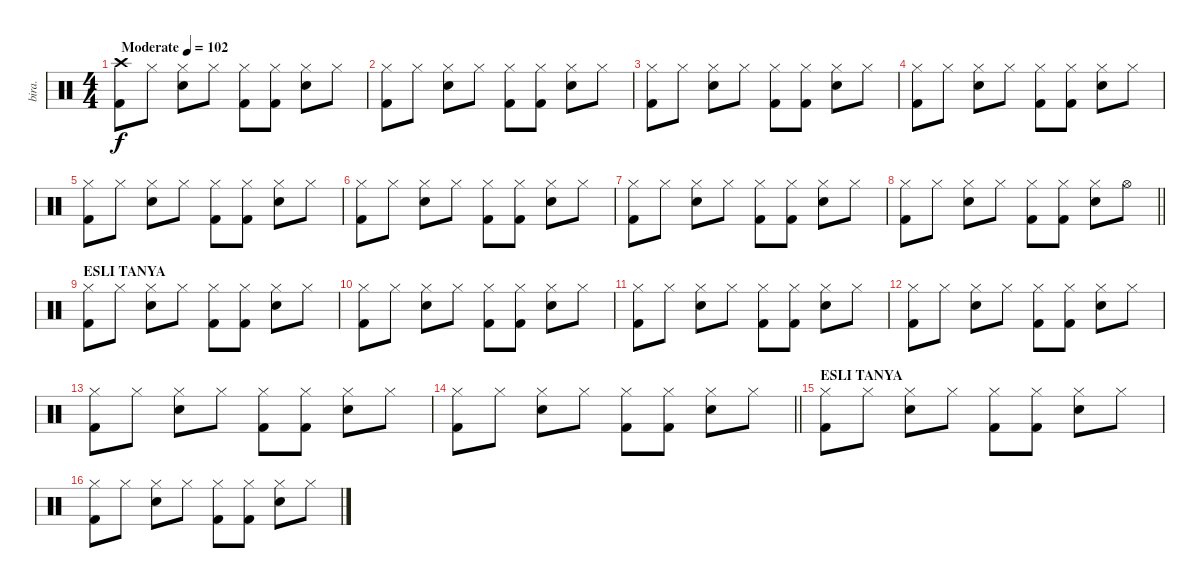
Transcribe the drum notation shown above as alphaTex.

\track ("bira." "bira.") {instrument percussion}
\staff {score}
\articulation defaults
\ts (4 4)
\tempo (102 "Moderate")
\clef neutral
\ks c
("Crash high (hit)" "Kick (hit) 2").8{dy f} "Hi-Hat (closed)".8 ("Hi-Hat (closed)" "Electric Snare (hit)").8 "Hi-Hat (closed)".8 ("Hi-Hat (closed)" "Kick (hit) 2").8 ("Hi-Hat (closed)" "Kick (hit) 2").8 ("Hi-Hat (closed)" "Electric Snare (hit)").8 "Hi-Hat (closed)".8 |
("Hi-Hat (closed)" "Kick (hit) 2").8 "Hi-Hat (closed)".8 ("Hi-Hat (closed)" "Electric Snare (hit)").8 "Hi-Hat (closed)".8 ("Hi-Hat (closed)" "Kick (hit) 2").8 ("Hi-Hat (closed)" "Kick (hit) 2").8 ("Hi-Hat (closed)" "Electric Snare (hit)").8 "Hi-Hat (closed)".8 |
("Hi-Hat (closed)" "Kick (hit) 2").8 "Hi-Hat (closed)".8 ("Hi-Hat (closed)" "Electric Snare (hit)").8 "Hi-Hat (closed)".8 ("Hi-Hat (closed)" "Kick (hit) 2").8 ("Hi-Hat (closed)" "Kick (hit) 2").8 ("Hi-Hat (closed)" "Electric Snare (hit)").8 "Hi-Hat (closed)".8 |
("Hi-Hat (closed)" "Kick (hit) 2").8 "Hi-Hat (closed)".8 ("Hi-Hat (closed)" "Electric Snare (hit)").8 "Hi-Hat (closed)".8 ("Hi-Hat (closed)" "Kick (hit) 2").8 ("Hi-Hat (closed)" "Kick (hit) 2").8 ("Hi-Hat (closed)" "Electric Snare (hit)").8 "Hi-Hat (closed)".8 |
("Hi-Hat (closed)" "Kick (hit) 2").8 "Hi-Hat (closed)".8 ("Hi-Hat (closed)" "Electric Snare (hit)").8 "Hi-Hat (closed)".8 ("Hi-Hat (closed)" "Kick (hit) 2").8 ("Hi-Hat (closed)" "Kick (hit) 2").8 ("Hi-Hat (closed)" "Electric Snare (hit)").8 "Hi-Hat (closed)".8 |
("Hi-Hat (closed)" "Kick (hit) 2").8 "Hi-Hat (closed)".8 ("Hi-Hat (closed)" "Electric Snare (hit)").8 "Hi-Hat (closed)".8 ("Hi-Hat (closed)" "Kick (hit) 2").8 ("Hi-Hat (closed)" "Kick (hit) 2").8 ("Hi-Hat (closed)" "Electric Snare (hit)").8 "Hi-Hat (closed)".8 |
("Hi-Hat (closed)" "Kick (hit) 2").8 "Hi-Hat (closed)".8 ("Hi-Hat (closed)" "Electric Snare (hit)").8 "Hi-Hat (closed)".8 ("Hi-Hat (closed)" "Kick (hit) 2").8 ("Hi-Hat (closed)" "Kick (hit) 2").8 ("Hi-Hat (closed)" "Electric Snare (hit)").8 "Hi-Hat (closed)".8 |
\barLineRight lightlight
("Hi-Hat (closed)" "Kick (hit) 2").8 "Hi-Hat (closed)".8 ("Hi-Hat (closed)" "Electric Snare (hit)").8 "Hi-Hat (closed)".8 ("Hi-Hat (closed)" "Kick (hit) 2").8 ("Hi-Hat (closed)" "Kick (hit) 2").8 ("Hi-Hat (closed)" "Electric Snare (hit)").8 "Hi-Hat (open)".8 |
\section ("" "ESLI TANYA")
("Hi-Hat (closed)" "Kick (hit) 2").8 "Hi-Hat (closed)".8 ("Hi-Hat (closed)" "Electric Snare (hit)").8 "Hi-Hat (closed)".8 ("Hi-Hat (closed)" "Kick (hit) 2").8 ("Hi-Hat (closed)" "Kick (hit) 2").8 ("Hi-Hat (closed)" "Electric Snare (hit)").8 "Hi-Hat (closed)".8 |
("Hi-Hat (closed)" "Kick (hit) 2").8 "Hi-Hat (closed)".8 ("Hi-Hat (closed)" "Electric Snare (hit)").8 "Hi-Hat (closed)".8 ("Hi-Hat (closed)" "Kick (hit) 2").8 ("Hi-Hat (closed)" "Kick (hit) 2").8 ("Hi-Hat (closed)" "Electric Snare (hit)").8 "Hi-Hat (closed)".8 |
("Hi-Hat (closed)" "Kick (hit) 2").8 "Hi-Hat (closed)".8 ("Hi-Hat (closed)" "Electric Snare (hit)").8 "Hi-Hat (closed)".8 ("Hi-Hat (closed)" "Kick (hit) 2").8 ("Hi-Hat (closed)" "Kick (hit) 2").8 ("Hi-Hat (closed)" "Electric Snare (hit)").8 "Hi-Hat (closed)".8 |
("Hi-Hat (closed)" "Kick (hit) 2").8 "Hi-Hat (closed)".8 ("Hi-Hat (closed)" "Electric Snare (hit)").8 "Hi-Hat (closed)".8 ("Hi-Hat (closed)" "Kick (hit) 2").8 ("Hi-Hat (closed)" "Kick (hit) 2").8 ("Hi-Hat (closed)" "Electric Snare (hit)").8 "Hi-Hat (closed)".8 |
("Hi-Hat (closed)" "Kick (hit) 2").8 "Hi-Hat (closed)".8 ("Hi-Hat (closed)" "Electric Snare (hit)").8 "Hi-Hat (closed)".8 ("Hi-Hat (closed)" "Kick (hit) 2").8 ("Hi-Hat (closed)" "Kick (hit) 2").8 ("Hi-Hat (closed)" "Electric Snare (hit)").8 "Hi-Hat (closed)".8 |
\barLineRight lightlight
("Hi-Hat (closed)" "Kick (hit) 2").8 "Hi-Hat (closed)".8 ("Hi-Hat (closed)" "Electric Snare (hit)").8 "Hi-Hat (closed)".8 ("Hi-Hat (closed)" "Kick (hit) 2").8 ("Hi-Hat (closed)" "Kick (hit) 2").8 ("Hi-Hat (closed)" "Electric Snare (hit)").8 "Hi-Hat (closed)".8 |
\section ("" "ESLI TANYA")
("Hi-Hat (closed)" "Kick (hit) 2").8 "Hi-Hat (closed)".8 ("Hi-Hat (closed)" "Electric Snare (hit)").8 "Hi-Hat (closed)".8 ("Hi-Hat (closed)" "Kick (hit) 2").8 ("Hi-Hat (closed)" "Kick (hit) 2").8 ("Hi-Hat (closed)" "Electric Snare (hit)").8 "Hi-Hat (closed)".8 |
("Hi-Hat (closed)" "Kick (hit) 2").8 "Hi-Hat (closed)".8 ("Hi-Hat (closed)" "Electric Snare (hit)").8 "Hi-Hat (closed)".8 ("Hi-Hat (closed)" "Kick (hit) 2").8 ("Hi-Hat (closed)" "Kick (hit) 2").8 ("Hi-Hat (closed)" "Electric Snare (hit)").8 "Hi-Hat (closed)".8
